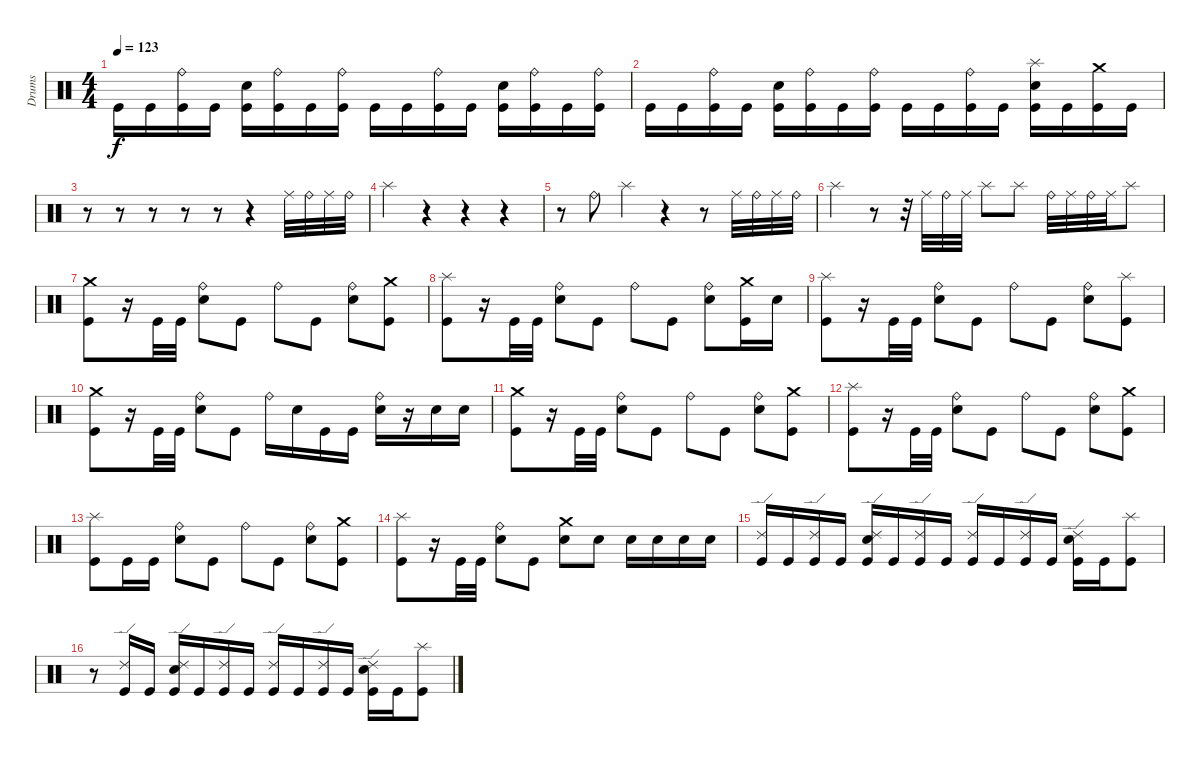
\track ("Drums" "Drums") {instrument percussion}
\staff {score}
\articulation defaults
\ts (4 4)
\tempo 123
\clef neutral
\ks c "Kick (hit)".16{dy f} "Kick (hit)".16
("Ride (bell)" "Kick (hit)").16 "Kick (hit)".16 ("Electric Snare (hit)" "Kick (hit)").16 ("Ride (bell)" "Kick (hit)").16 "Kick (hit)".16 ("Ride (bell)" "Kick (hit)").16 "Kick (hit)".16 "Kick (hit)".16 ("Ride (bell)" "Kick (hit)").16 "Kick (hit)".16 ("Electric Snare (hit)" "Kick (hit)").16 ("Ride (bell)" "Kick (hit)").16 "Kick (hit)".16 ("Ride (bell)" "Kick (hit)").16 |
"Kick (hit)".16 "Kick (hit)".16 ("Ride (bell)" "Kick (hit)").16 "Kick (hit)".16 ("Electric Snare (hit)" "Kick (hit)").16 ("Ride (bell)" "Kick (hit)").16 "Kick (hit)".16 ("Ride (bell)" "Kick (hit)").16 "Kick (hit)".16 "Kick (hit)".16 ("Ride (bell)" "Kick (hit)").16 "Kick (hit)".16 ("Splash (hit)" "Electric Snare (hit)" "Kick (hit)").16 "Kick (hit)".16 ("Crash medium (hit)" "Kick (hit)").16 "Kick (hit)".16 |
r.8 r.8 r.8 r.8 r.8 r.4 "Ride (middle)".32 "Ride (bell)".32 "Ride (middle)".32 "Ride (bell)".32 |
"Splash (hit)".4 r.4 r.4 r.4 |
r.8 "Ride (bell)".8 "Splash (hit)".4 r.4 r.8 "Ride (middle)".32 "Ride (bell)".32 "Ride (middle)".32 "Ride (bell)".32 |
"Splash (hit)".4 r.8 r.32 "Ride (middle)".32 "Ride (bell)".32 "Ride (middle)".32 "Splash (hit)".8 "Splash (hit)".8 "Ride (bell)".32 "Ride (middle)".32 "Ride (bell)".32 "Ride (middle)".32 "Splash (hit)".8 |
("Crash medium (hit)" "Kick (hit)").8 r.16 "Kick (hit)".32 "Kick (hit)".32 ("Ride (bell)" "Electric Snare (hit)").8 "Kick (hit)".8 "Ride (bell)".8 "Kick (hit)".8 ("Ride (bell)" "Electric Snare (hit)").8 ("Crash medium (hit)" "Kick (hit)").8 |
("Splash (hit)" "Kick (hit)").8 r.16 "Kick (hit)".32 "Kick (hit)".32 ("Ride (bell)" "Electric Snare (hit)").8 "Kick (hit)".8 "Ride (bell)".8 "Kick (hit)".8 ("Ride (bell)" "Electric Snare (hit)").8 ("Crash medium (hit)" "Kick (hit)").16 "Electric Snare (hit)".16 |
("Splash (hit)" "Kick (hit)").8 r.16 "Kick (hit)".32 "Kick (hit)".32 ("Ride (bell)" "Electric Snare (hit)").8 "Kick (hit)".8 "Ride (bell)".8 "Kick (hit)".8 ("Ride (bell)" "Electric Snare (hit)").8 ("Splash (hit)" "Kick (hit)").8 |
("Crash medium (hit)" "Kick (hit)").8 r.16 "Kick (hit)".32 "Kick (hit)".32 ("Ride (bell)" "Electric Snare (hit)").8 "Kick (hit)".8 "Ride (bell)".16 "Electric Snare (hit)".16 "Kick (hit)".16 "Kick (hit)".16 ("Ride (bell)" "Electric Snare (hit)").16 r.16 "Electric Snare (hit)".16 "Electric Snare (hit)".16 |
("Crash medium (hit)" "Kick (hit)").8 r.16 "Kick (hit)".32 "Kick (hit)".32 ("Ride (bell)" "Electric Snare (hit)").8 "Kick (hit)".8 "Ride (bell)".8 "Kick (hit)".8 ("Ride (bell)" "Electric Snare (hit)").8 ("Crash medium (hit)" "Kick (hit)").8 |
("Splash (hit)" "Kick (hit)").8 r.16 "Kick (hit)".32 "Kick (hit)".32 ("Ride (bell)" "Electric Snare (hit)").8 "Kick (hit)".8 "Ride (bell)".8 "Kick (hit)".8 ("Ride (bell)" "Electric Snare (hit)").8 ("Crash medium (hit)" "Kick (hit)").8 |
("Splash (hit)" "Kick (hit)").8 "Kick (hit)".16 "Kick (hit)".16 ("Ride (bell)" "Electric Snare (hit)").8 "Kick (hit)".8 "Ride (bell)".8 "Kick (hit)".8 ("Ride (bell)" "Electric Snare (hit)").8 ("Crash medium (hit)" "Kick (hit)").8 |
("Splash (hit)" "Kick (hit)").8 r.16 "Kick (hit)".32 "Kick (hit)".32 ("Ride (bell)" "Electric Snare (hit)").8 "Kick (hit)".8 ("Crash medium (hit)" "Electric Snare (hit)").8 "Electric Snare (hit)".8 "Electric Snare (hit)".16 "Electric Snare (hit)".16 "Electric Snare (hit)".16 "Electric Snare (hit)".16 |
("Ride (edge) 2" "Kick (hit)").16 "Kick (hit)".16 ("Ride (edge) 2" "Kick (hit)").16 "Kick (hit)".16 ("Ride (edge) 2" "Electric Snare (hit)" "Kick (hit)").16 "Kick (hit)".16 ("Ride (edge) 2" "Kick (hit)").16 "Kick (hit)".16 ("Ride (edge) 2" "Kick (hit)").16 "Kick (hit)".16 ("Ride (edge) 2" "Kick (hit)").16 "Kick (hit)".16 ("Ride (edge) 2" "Electric Snare (hit)" "Kick (hit)").16 "Kick (hit)".16 ("Splash (hit)" "Kick (hit)").8 |
r.8 ("Ride (edge) 2" "Kick (hit)").16 "Kick (hit)".16 ("Ride (edge) 2" "Electric Snare (hit)" "Kick (hit)").16 "Kick (hit)".16 ("Ride (edge) 2" "Kick (hit)").16 "Kick (hit)".16 ("Ride (edge) 2" "Kick (hit)").16 "Kick (hit)".16 ("Ride (edge) 2" "Kick (hit)").16 "Kick (hit)".16 ("Ride (edge) 2" "Electric Snare (hit)" "Kick (hit)").16 "Kick (hit)".16 ("Splash (hit)" "Kick (hit)").8
